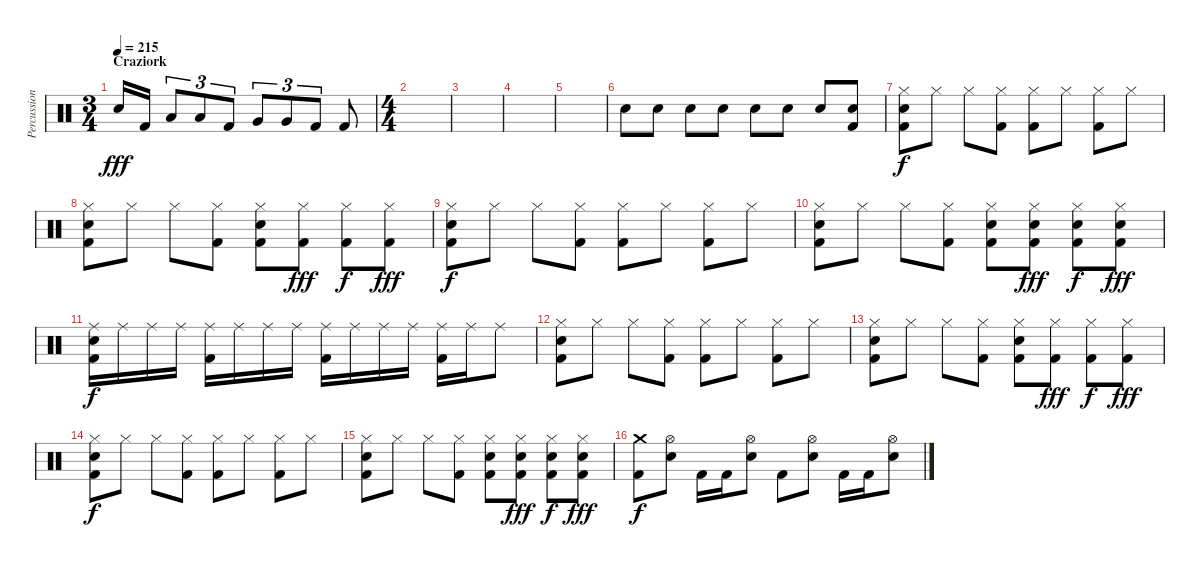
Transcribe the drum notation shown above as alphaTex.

\track ("Percussion" "Percussion") {instrument percussion}
\staff {score}
\articulation defaults
\ts (3 4)
\section ("" "Craziork")
\tempo 215
\clef neutral
\ks c "Electric Snare (hit)".16{dy fff} "Kick (hit) 2".16 "Low Tom (hit)".8{tu (3 2)} "Low Tom (hit)".8{tu (3 2)} "Kick (hit) 2".8{tu (3 2)} "Very Low Tom (hit)".8{tu (3 2)} "Very Low Tom (hit)".8{tu (3 2)} "Kick (hit) 2".8{tu (3 2)} "Kick (hit) 2".8
|
\ts (4 4)
|
|
|
|
"Electric Snare (hit)".8 "Electric Snare (hit)".8 "Electric Snare (hit)".8 "Electric Snare (hit)".8 "Electric Snare (hit)".8 "Electric Snare (hit)".8 "Electric Snare (hit)".8 ("Electric Snare (hit)" "Kick (hit) 2").8 |
("Electric Snare (hit)" "Hi-Hat (closed)" "Kick (hit) 2").8{dy f} "Hi-Hat (closed)".8 "Hi-Hat (closed)".8 ("Hi-Hat (closed)" "Kick (hit) 2").8 ("Hi-Hat (closed)" "Kick (hit) 2").8 "Hi-Hat (closed)".8 ("Hi-Hat (closed)" "Kick (hit) 2").8 "Hi-Hat (closed)".8 |
("Electric Snare (hit)" "Hi-Hat (closed)" "Kick (hit) 2").8 "Hi-Hat (closed)".8 "Hi-Hat (closed)".8 ("Hi-Hat (closed)" "Kick (hit) 2").8 ("Electric Snare (hit)" "Hi-Hat (closed)" "Kick (hit) 2").8 ("Hi-Hat (closed)" "Kick (hit) 2").8{dy fff} ("Hi-Hat (closed)" "Kick (hit) 2").8{dy f} ("Hi-Hat (closed)" "Kick (hit) 2").8{dy fff} |
("Electric Snare (hit)" "Hi-Hat (closed)" "Kick (hit) 2").8{dy f} "Hi-Hat (closed)".8 "Hi-Hat (closed)".8 ("Hi-Hat (closed)" "Kick (hit) 2").8 ("Hi-Hat (closed)" "Kick (hit) 2").8 "Hi-Hat (closed)".8 ("Hi-Hat (closed)" "Kick (hit) 2").8 "Hi-Hat (closed)".8 |
("Electric Snare (hit)" "Hi-Hat (closed)" "Kick (hit) 2").8 "Hi-Hat (closed)".8 "Hi-Hat (closed)".8 ("Hi-Hat (closed)" "Kick (hit) 2").8 ("Electric Snare (hit)" "Hi-Hat (closed)" "Kick (hit) 2").8 ("Electric Snare (hit)" "Hi-Hat (closed)" "Kick (hit) 2").8{dy fff} ("Electric Snare (hit)" "Hi-Hat (closed)" "Kick (hit) 2").8{dy f} ("Electric Snare (hit)" "Hi-Hat (closed)" "Kick (hit) 2").8{dy fff} |
("Ride (middle)" "Electric Snare (hit)" "Kick (hit) 2").16{dy f} "Ride (middle)".16 "Ride (middle)".16 "Ride (middle)".16 ("Ride (middle)" "Kick (hit) 2").16 "Ride (middle)".16 "Ride (middle)".16 "Ride (middle)".16 ("Ride (middle)" "Kick (hit) 2").16 "Ride (middle)".16 "Ride (middle)".16 "Ride (middle)".16 ("Ride (middle)" "Kick (hit) 2").16 "Ride (middle)".16 "Ride (middle)".8 |
("Electric Snare (hit)" "Hi-Hat (closed)" "Kick (hit) 2").8 "Hi-Hat (closed)".8 "Hi-Hat (closed)".8 ("Hi-Hat (closed)" "Kick (hit) 2").8 ("Hi-Hat (closed)" "Kick (hit) 2").8 "Hi-Hat (closed)".8 ("Hi-Hat (closed)" "Kick (hit) 2").8 "Hi-Hat (closed)".8 |
("Electric Snare (hit)" "Hi-Hat (closed)" "Kick (hit) 2").8 "Hi-Hat (closed)".8 "Hi-Hat (closed)".8 ("Hi-Hat (closed)" "Kick (hit) 2").8 ("Electric Snare (hit)" "Hi-Hat (closed)" "Kick (hit) 2").8 ("Hi-Hat (closed)" "Kick (hit) 2").8{dy fff} ("Hi-Hat (closed)" "Kick (hit) 2").8{dy f} ("Hi-Hat (closed)" "Kick (hit) 2").8{dy fff} |
("Electric Snare (hit)" "Hi-Hat (closed)" "Kick (hit) 2").8{dy f} "Hi-Hat (closed)".8 "Hi-Hat (closed)".8 ("Hi-Hat (closed)" "Kick (hit) 2").8 ("Hi-Hat (closed)" "Kick (hit) 2").8 "Hi-Hat (closed)".8 ("Hi-Hat (closed)" "Kick (hit) 2").8 "Hi-Hat (closed)".8 |
("Electric Snare (hit)" "Hi-Hat (closed)" "Kick (hit) 2").8 "Hi-Hat (closed)".8 "Hi-Hat (closed)".8 ("Hi-Hat (closed)" "Kick (hit) 2").8 ("Electric Snare (hit)" "Hi-Hat (closed)" "Kick (hit) 2").8 ("Electric Snare (hit)" "Hi-Hat (closed)" "Kick (hit) 2").8{dy fff} ("Electric Snare (hit)" "Hi-Hat (closed)" "Kick (hit) 2").8{dy f} ("Electric Snare (hit)" "Hi-Hat (closed)" "Kick (hit) 2").8{dy fff} |
("Crash medium (hit)" "Kick (hit) 2").8{dy f} ("Hi-Hat (open)" "Electric Snare (hit)").8 "Kick (hit) 2".16 "Kick (hit) 2".16 ("Hi-Hat (open)" "Electric Snare (hit)").8 "Kick (hit) 2".8 ("Hi-Hat (open)" "Electric Snare (hit)").8 "Kick (hit) 2".16 "Kick (hit) 2".16 ("Hi-Hat (open)" "Electric Snare (hit)").8
